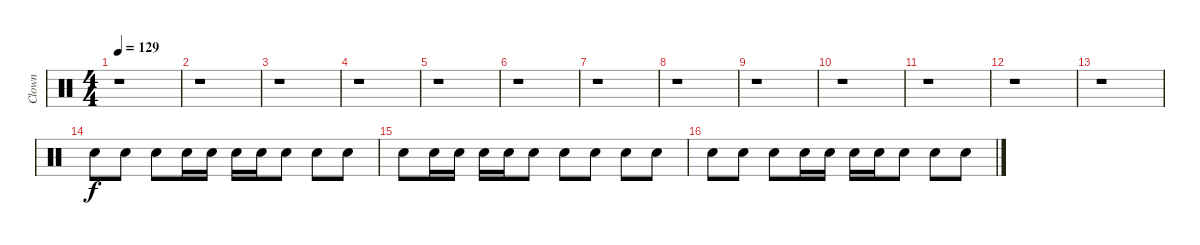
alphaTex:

\track ("Clown" "Clown") {instrument percussion}
\staff {score}
\articulation defaults
\ts (4 4)
\tempo 129
\clef neutral
\ks c
r.1{dy f} |
r.1 |
r.1 |
r.1 |
r.1 |
r.1 |
r.1 |
r.1 |
r.1 |
r.1 |
r.1 |
r.1 |
r.1 |
"Snare (hit) 2".8 "Snare (hit) 2".8 "Snare (hit) 2".8 "Snare (hit) 2".16 "Snare (hit) 2".16 "Snare (hit) 2".16 "Snare (hit) 2".16 "Snare (hit) 2".8 "Snare (hit) 2".8 "Snare (hit) 2".8 |
"Snare (hit) 2".8 "Snare (hit) 2".16 "Snare (hit) 2".16 "Snare (hit) 2".16 "Snare (hit) 2".16 "Snare (hit) 2".8 "Snare (hit) 2".8 "Snare (hit) 2".8 "Snare (hit) 2".8 "Snare (hit) 2".8 |
"Snare (hit) 2".8 "Snare (hit) 2".8 "Snare (hit) 2".8 "Snare (hit) 2".16 "Snare (hit) 2".16 "Snare (hit) 2".16 "Snare (hit) 2".16 "Snare (hit) 2".8 "Snare (hit) 2".8 "Snare (hit) 2".8
